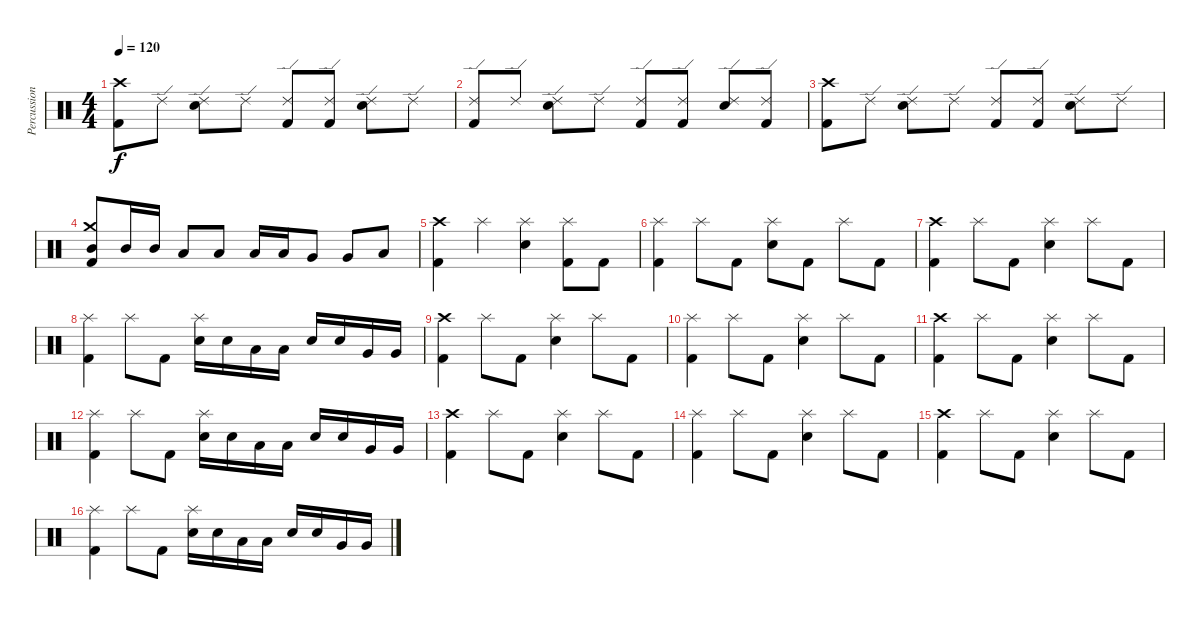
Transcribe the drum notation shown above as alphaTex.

\track ("Percussion" "Percussion") {instrument percussion}
\staff {score}
\articulation defaults
\ts (4 4)
\tempo 120
\clef neutral
\ks c
("Crash high (hit)" "Kick (hit) 2").8{dy f} "Ride (edge) 2".8 ("Ride (edge) 2" "Electric Snare (hit)").8 "Ride (edge) 2".8 ("Ride (edge) 2" "Kick (hit) 2").8 ("Ride (edge) 2" "Kick (hit) 2").8 ("Ride (edge) 2" "Electric Snare (hit)").8 "Ride (edge) 2".8 |
("Ride (edge) 2" "Kick (hit) 2").8 "Ride (edge) 2".8 ("Ride (edge) 2" "Electric Snare (hit)").8 "Ride (edge) 2".8 ("Ride (edge) 2" "Kick (hit) 2").8 ("Ride (edge) 2" "Kick (hit) 2").8 ("Ride (edge) 2" "Electric Snare (hit)").8 ("Ride (edge) 2" "Kick (hit) 2").8 |
("Crash high (hit)" "Kick (hit) 2").8 "Ride (edge) 2".8 ("Ride (edge) 2" "Electric Snare (hit)").8 "Ride (edge) 2".8 ("Ride (edge) 2" "Kick (hit) 2").8 ("Ride (edge) 2" "Kick (hit) 2").8 ("Ride (edge) 2" "Electric Snare (hit)").8 "Ride (edge) 2".8 |
("Crash medium (hit)" "Mid Tom (hit)" "Kick (hit) 2").8 "Mid Tom (hit)".16 "Mid Tom (hit)".16 "Low Tom (hit)".8 "Low Tom (hit)".8 "Low Tom (hit)".16 "Low Tom (hit)".16 "Very Low Tom (hit)".8 "Very Low Tom (hit)".8 "Low Floor Tom (hit)".8 |
("Crash high (hit)" "Kick (hit) 2").4 "Splash (hit)".4 ("Splash (hit)" "Electric Snare (hit)").4 ("Splash (hit)" "Kick (hit) 2").8 "Kick (hit) 2".8 |
("Splash (hit)" "Kick (hit) 2").4 "Splash (hit)".8 "Kick (hit) 2".8 ("Splash (hit)" "Electric Snare (hit)").8 "Kick (hit) 2".8 "Splash (hit)".8 "Kick (hit) 2".8 |
("Crash high (hit)" "Kick (hit) 2").4 "Splash (hit)".8 "Kick (hit) 2".8 ("Splash (hit)" "Electric Snare (hit)").4 "Splash (hit)".8 "Kick (hit) 2".8 |
("Splash (hit)" "Kick (hit) 2").4 "Splash (hit)".8 "Kick (hit) 2".8 ("Splash (hit)" "Electric Snare (hit)").16 "Electric Snare (hit)".16 "Low Tom (hit)".16 "Low Tom (hit)".16 "Electric Snare (hit)".16 "Electric Snare (hit)".16 "Very Low Tom (hit)".16 "Very Low Tom (hit)".16 |
("Crash high (hit)" "Kick (hit) 2").4 "Splash (hit)".8 "Kick (hit) 2".8 ("Splash (hit)" "Electric Snare (hit)").4 "Splash (hit)".8 "Kick (hit) 2".8 |
("Splash (hit)" "Kick (hit) 2").4 "Splash (hit)".8 "Kick (hit) 2".8 ("Splash (hit)" "Electric Snare (hit)").4 "Splash (hit)".8 "Kick (hit) 2".8 |
("Crash high (hit)" "Kick (hit) 2").4 "Splash (hit)".8 "Kick (hit) 2".8 ("Splash (hit)" "Electric Snare (hit)").4 "Splash (hit)".8 "Kick (hit) 2".8 |
("Splash (hit)" "Kick (hit) 2").4 "Splash (hit)".8 "Kick (hit) 2".8 ("Splash (hit)" "Electric Snare (hit)").16 "Electric Snare (hit)".16 "Low Tom (hit)".16 "Low Tom (hit)".16 "Electric Snare (hit)".16 "Electric Snare (hit)".16 "Very Low Tom (hit)".16 "Very Low Tom (hit)".16 |
("Crash high (hit)" "Kick (hit) 2").4 "Splash (hit)".8 "Kick (hit) 2".8 ("Splash (hit)" "Electric Snare (hit)").4 "Splash (hit)".8 "Kick (hit) 2".8 |
("Splash (hit)" "Kick (hit) 2").4 "Splash (hit)".8 "Kick (hit) 2".8 ("Splash (hit)" "Electric Snare (hit)").4 "Splash (hit)".8 "Kick (hit) 2".8 |
("Crash high (hit)" "Kick (hit) 2").4 "Splash (hit)".8 "Kick (hit) 2".8 ("Splash (hit)" "Electric Snare (hit)").4 "Splash (hit)".8 "Kick (hit) 2".8 |
("Splash (hit)" "Kick (hit) 2").4 "Splash (hit)".8 "Kick (hit) 2".8 ("Splash (hit)" "Electric Snare (hit)").16 "Electric Snare (hit)".16 "Low Tom (hit)".16 "Low Tom (hit)".16 "Electric Snare (hit)".16 "Electric Snare (hit)".16 "Very Low Tom (hit)".16 "Very Low Tom (hit)".16
